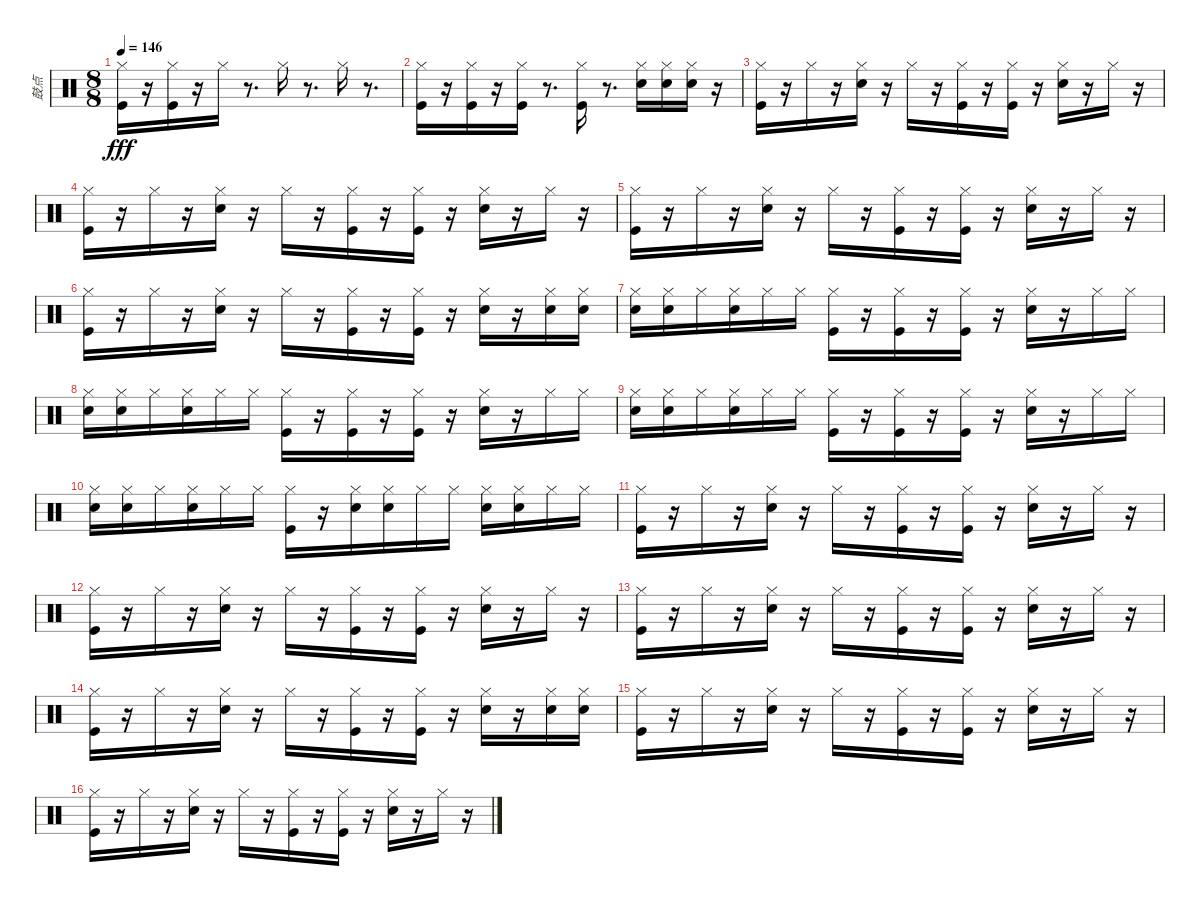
\track ("鼓点" "鼓点") {instrument percussion}
\staff {score}
\articulation defaults
\ts (8 8)
\tempo 146
\clef neutral
\ks c
("Kick (hit)" "Hi-Hat (closed)").16{dy fff} r.16 ("Kick (hit)" "Hi-Hat (closed)").16 r.16 "Hi-Hat (closed)".16 r.8{d} "Hi-Hat (closed)".16 r.8{d} "Hi-Hat (closed)".16 r.8{d} |
("Kick (hit)" "Hi-Hat (closed)").16 r.16 ("Kick (hit)" "Hi-Hat (closed)").16 r.16 ("Kick (hit)" "Hi-Hat (closed)").16 r.8{d} ("Kick (hit)" "Hi-Hat (closed)").16 r.8{d} ("Snare (hit) 2" "Hi-Hat (closed)").16 ("Snare (hit) 2" "Hi-Hat (closed)").16 ("Snare (hit) 2" "Hi-Hat (closed)").16 r.16 |
("Kick (hit)" "Hi-Hat (closed)").16 r.16 "Hi-Hat (closed)".16 r.16 ("Snare (hit) 2" "Hi-Hat (closed)").16 r.16 "Hi-Hat (closed)".16 r.16 ("Kick (hit)" "Hi-Hat (closed)").16 r.16 ("Kick (hit)" "Hi-Hat (closed)").16 r.16 ("Snare (hit) 2" "Hi-Hat (closed)").16 r.16 "Hi-Hat (closed)".16 r.16 |
("Kick (hit)" "Hi-Hat (closed)").16 r.16 "Hi-Hat (closed)".16 r.16 ("Snare (hit) 2" "Hi-Hat (closed)").16 r.16 "Hi-Hat (closed)".16 r.16 ("Kick (hit)" "Hi-Hat (closed)").16 r.16 ("Kick (hit)" "Hi-Hat (closed)").16 r.16 ("Snare (hit) 2" "Hi-Hat (closed)").16 r.16 "Hi-Hat (closed)".16 r.16 |
("Kick (hit)" "Hi-Hat (closed)").16 r.16 "Hi-Hat (closed)".16 r.16 ("Snare (hit) 2" "Hi-Hat (closed)").16 r.16 "Hi-Hat (closed)".16 r.16 ("Kick (hit)" "Hi-Hat (closed)").16 r.16 ("Kick (hit)" "Hi-Hat (closed)").16 r.16 ("Snare (hit) 2" "Hi-Hat (closed)").16 r.16 "Hi-Hat (closed)".16 r.16 |
("Kick (hit)" "Hi-Hat (closed)").16 r.16 "Hi-Hat (closed)".16 r.16 ("Snare (hit) 2" "Hi-Hat (closed)").16 r.16 "Hi-Hat (closed)".16 r.16 ("Kick (hit)" "Hi-Hat (closed)").16 r.16 ("Kick (hit)" "Hi-Hat (closed)").16 r.16 ("Snare (hit) 2" "Hi-Hat (closed)").16 r.16 ("Snare (hit) 2" "Hi-Hat (closed)").16 ("Snare (hit) 2" "Hi-Hat (closed)").16 |
("Snare (hit) 2" "Hi-Hat (closed)").16 ("Snare (hit) 2" "Hi-Hat (closed)").16 "Hi-Hat (closed)".16 ("Snare (hit) 2" "Hi-Hat (closed)").16 "Hi-Hat (closed)".16 "Hi-Hat (closed)".16 ("Kick (hit)" "Hi-Hat (closed)").16 r.16 ("Kick (hit)" "Hi-Hat (closed)").16 r.16 ("Kick (hit)" "Hi-Hat (closed)").16 r.16 ("Snare (hit) 2" "Hi-Hat (closed)").16 r.16 "Hi-Hat (closed)".16 "Hi-Hat (closed)".16 |
("Snare (hit) 2" "Hi-Hat (closed)").16 ("Snare (hit) 2" "Hi-Hat (closed)").16 "Hi-Hat (closed)".16 ("Snare (hit) 2" "Hi-Hat (closed)").16 "Hi-Hat (closed)".16 "Hi-Hat (closed)".16 ("Kick (hit)" "Hi-Hat (closed)").16 r.16 ("Kick (hit)" "Hi-Hat (closed)").16 r.16 ("Kick (hit)" "Hi-Hat (closed)").16 r.16 ("Snare (hit) 2" "Hi-Hat (closed)").16 r.16 "Hi-Hat (closed)".16 "Hi-Hat (closed)".16 |
("Snare (hit) 2" "Hi-Hat (closed)").16 ("Snare (hit) 2" "Hi-Hat (closed)").16 "Hi-Hat (closed)".16 ("Snare (hit) 2" "Hi-Hat (closed)").16 "Hi-Hat (closed)".16 "Hi-Hat (closed)".16 ("Kick (hit)" "Hi-Hat (closed)").16 r.16 ("Kick (hit)" "Hi-Hat (closed)").16 r.16 ("Kick (hit)" "Hi-Hat (closed)").16 r.16 ("Snare (hit) 2" "Hi-Hat (closed)").16 r.16 "Hi-Hat (closed)".16 "Hi-Hat (closed)".16 |
("Snare (hit) 2" "Hi-Hat (closed)").16 ("Snare (hit) 2" "Hi-Hat (closed)").16 "Hi-Hat (closed)".16 ("Snare (hit) 2" "Hi-Hat (closed)").16 "Hi-Hat (closed)".16 "Hi-Hat (closed)".16 ("Kick (hit)" "Hi-Hat (closed)").16 r.16 ("Snare (hit) 2" "Hi-Hat (closed)").16 ("Snare (hit) 2" "Hi-Hat (closed)").16 "Hi-Hat (closed)".16 "Hi-Hat (closed)".16 ("Snare (hit) 2" "Hi-Hat (closed)").16 ("Snare (hit) 2" "Hi-Hat (closed)").16 "Hi-Hat (closed)".16 "Hi-Hat (closed)".16 |
("Kick (hit)" "Hi-Hat (closed)").16 r.16 "Hi-Hat (closed)".16 r.16 ("Snare (hit) 2" "Hi-Hat (closed)").16 r.16 "Hi-Hat (closed)".16 r.16 ("Kick (hit)" "Hi-Hat (closed)").16 r.16 ("Kick (hit)" "Hi-Hat (closed)").16 r.16 ("Snare (hit) 2" "Hi-Hat (closed)").16 r.16 "Hi-Hat (closed)".16 r.16 |
("Kick (hit)" "Hi-Hat (closed)").16 r.16 "Hi-Hat (closed)".16 r.16 ("Snare (hit) 2" "Hi-Hat (closed)").16 r.16 "Hi-Hat (closed)".16 r.16 ("Kick (hit)" "Hi-Hat (closed)").16 r.16 ("Kick (hit)" "Hi-Hat (closed)").16 r.16 ("Snare (hit) 2" "Hi-Hat (closed)").16 r.16 "Hi-Hat (closed)".16 r.16 |
("Kick (hit)" "Hi-Hat (closed)").16 r.16 "Hi-Hat (closed)".16 r.16 ("Snare (hit) 2" "Hi-Hat (closed)").16 r.16 "Hi-Hat (closed)".16 r.16 ("Kick (hit)" "Hi-Hat (closed)").16 r.16 ("Kick (hit)" "Hi-Hat (closed)").16 r.16 ("Snare (hit) 2" "Hi-Hat (closed)").16 r.16 "Hi-Hat (closed)".16 r.16 |
("Kick (hit)" "Hi-Hat (closed)").16 r.16 "Hi-Hat (closed)".16 r.16 ("Snare (hit) 2" "Hi-Hat (closed)").16 r.16 "Hi-Hat (closed)".16 r.16 ("Kick (hit)" "Hi-Hat (closed)").16 r.16 ("Kick (hit)" "Hi-Hat (closed)").16 r.16 ("Snare (hit) 2" "Hi-Hat (closed)").16 r.16 ("Snare (hit) 2" "Hi-Hat (closed)").16 ("Snare (hit) 2" "Hi-Hat (closed)").16 |
("Kick (hit)" "Hi-Hat (closed)").16 r.16 "Hi-Hat (closed)".16 r.16 ("Snare (hit) 2" "Hi-Hat (closed)").16 r.16 "Hi-Hat (closed)".16 r.16 ("Kick (hit)" "Hi-Hat (closed)").16 r.16 ("Kick (hit)" "Hi-Hat (closed)").16 r.16 ("Snare (hit) 2" "Hi-Hat (closed)").16 r.16 "Hi-Hat (closed)".16 r.16 |
("Kick (hit)" "Hi-Hat (closed)").16 r.16 "Hi-Hat (closed)".16 r.16 ("Snare (hit) 2" "Hi-Hat (closed)").16 r.16 "Hi-Hat (closed)".16 r.16 ("Kick (hit)" "Hi-Hat (closed)").16 r.16 ("Kick (hit)" "Hi-Hat (closed)").16 r.16 ("Snare (hit) 2" "Hi-Hat (closed)").16 r.16 "Hi-Hat (closed)".16 r.16
